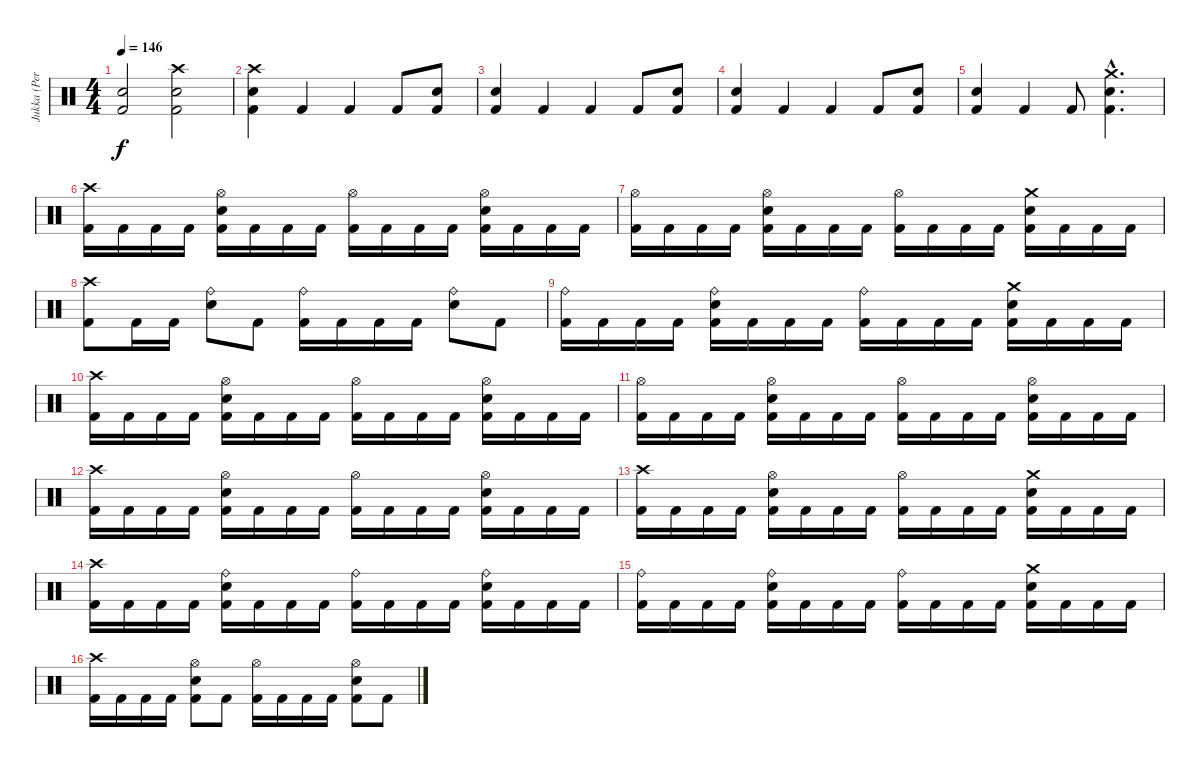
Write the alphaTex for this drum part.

\track ("Jukka (Percussion)" "Jukka (Per") {instrument percussion}
\staff {score}
\articulation defaults
\ts (4 4)
\tempo 146
\clef neutral
\ks c
("Snare (hit) 2" "Kick (hit) 2").2{dy f} ("Crash high (hit)" "Snare (hit) 2" "Kick (hit) 2").2 |
("Crash high (hit)" "Snare (hit) 2" "Kick (hit) 2").4 "Kick (hit) 2".4 "Kick (hit) 2".4 "Kick (hit) 2".8 ("Snare (hit) 2" "Kick (hit) 2").8 |
("Snare (hit) 2" "Kick (hit) 2").4 "Kick (hit) 2".4 "Kick (hit) 2".4 "Kick (hit) 2".8 ("Snare (hit) 2" "Kick (hit) 2").8 |
("Snare (hit) 2" "Kick (hit) 2").4 "Kick (hit) 2".4 "Kick (hit) 2".4 "Kick (hit) 2".8 ("Snare (hit) 2" "Kick (hit) 2").8 |
("Snare (hit) 2" "Kick (hit) 2").4 "Kick (hit) 2".4 "Kick (hit) 2".8 ("Crash medium (hit)"{hac} "Snare (hit) 2"{hac} "Kick (hit) 2"{hac}).4{d} |
("Crash high (hit)" "Kick (hit) 2").16 "Kick (hit) 2".16 "Kick (hit) 2".16 "Kick (hit) 2".16 ("Hi-Hat (open)" "Snare (hit) 2" "Kick (hit) 2").16 "Kick (hit) 2".16 "Kick (hit) 2".16 "Kick (hit) 2".16 ("Hi-Hat (open)" "Kick (hit) 2").16 "Kick (hit) 2".16 "Kick (hit) 2".16 "Kick (hit) 2".16 ("Hi-Hat (open)" "Snare (hit) 2" "Kick (hit) 2").16 "Kick (hit) 2".16 "Kick (hit) 2".16 "Kick (hit) 2".16 |
("Hi-Hat (open)" "Kick (hit) 2").16 "Kick (hit) 2".16 "Kick (hit) 2".16 "Kick (hit) 2".16 ("Hi-Hat (open)" "Snare (hit) 2" "Kick (hit) 2").16 "Kick (hit) 2".16 "Kick (hit) 2".16 "Kick (hit) 2".16 ("Hi-Hat (open)" "Kick (hit) 2").16 "Kick (hit) 2".16 "Kick (hit) 2".16 "Kick (hit) 2".16 ("Crash medium (hit)" "Snare (hit) 2" "Kick (hit) 2").16 "Kick (hit) 2".16 "Kick (hit) 2".16 "Kick (hit) 2".16 |
("Crash high (hit)" "Kick (hit) 2").8 "Kick (hit) 2".16 "Kick (hit) 2".16 ("Ride (bell)" "Snare (hit) 2").8 "Kick (hit) 2".8 ("Ride (bell)" "Kick (hit) 2").16 "Kick (hit) 2".16 "Kick (hit) 2".16 "Kick (hit) 2".16 ("Ride (bell)" "Snare (hit) 2").8 "Kick (hit) 2".8 |
("Ride (bell)" "Kick (hit) 2").16 "Kick (hit) 2".16 "Kick (hit) 2".16 "Kick (hit) 2".16 ("Ride (bell)" "Snare (hit) 2" "Kick (hit) 2").16 "Kick (hit) 2".16 "Kick (hit) 2".16 "Kick (hit) 2".16 ("Ride (bell)" "Kick (hit) 2").16 "Kick (hit) 2".16 "Kick (hit) 2".16 "Kick (hit) 2".16 ("Crash medium (hit)" "Snare (hit) 2" "Kick (hit) 2").16 "Kick (hit) 2".16 "Kick (hit) 2".16 "Kick (hit) 2".16 |
("Crash high (hit)" "Kick (hit) 2").16 "Kick (hit) 2".16 "Kick (hit) 2".16 "Kick (hit) 2".16 ("Hi-Hat (open)" "Snare (hit) 2" "Kick (hit) 2").16 "Kick (hit) 2".16 "Kick (hit) 2".16 "Kick (hit) 2".16 ("Hi-Hat (open)" "Kick (hit) 2").16 "Kick (hit) 2".16 "Kick (hit) 2".16 "Kick (hit) 2".16 ("Hi-Hat (open)" "Snare (hit) 2" "Kick (hit) 2").16 "Kick (hit) 2".16 "Kick (hit) 2".16 "Kick (hit) 2".16 |
("Hi-Hat (open)" "Kick (hit) 2").16 "Kick (hit) 2".16 "Kick (hit) 2".16 "Kick (hit) 2".16 ("Hi-Hat (open)" "Snare (hit) 2" "Kick (hit) 2").16 "Kick (hit) 2".16 "Kick (hit) 2".16 "Kick (hit) 2".16 ("Hi-Hat (open)" "Kick (hit) 2").16 "Kick (hit) 2".16 "Kick (hit) 2".16 "Kick (hit) 2".16 ("Hi-Hat (open)" "Snare (hit) 2" "Kick (hit) 2").16 "Kick (hit) 2".16 "Kick (hit) 2".16 "Kick (hit) 2".16 |
("Crash high (hit)" "Kick (hit) 2").16 "Kick (hit) 2".16 "Kick (hit) 2".16 "Kick (hit) 2".16 ("Hi-Hat (open)" "Snare (hit) 2" "Kick (hit) 2").16 "Kick (hit) 2".16 "Kick (hit) 2".16 "Kick (hit) 2".16 ("Hi-Hat (open)" "Kick (hit) 2").16 "Kick (hit) 2".16 "Kick (hit) 2".16 "Kick (hit) 2".16 ("Hi-Hat (open)" "Snare (hit) 2" "Kick (hit) 2").16 "Kick (hit) 2".16 "Kick (hit) 2".16 "Kick (hit) 2".16 |
("Crash high (hit)" "Kick (hit) 2").16 "Kick (hit) 2".16 "Kick (hit) 2".16 "Kick (hit) 2".16 ("Hi-Hat (open)" "Snare (hit) 2" "Kick (hit) 2").16 "Kick (hit) 2".16 "Kick (hit) 2".16 "Kick (hit) 2".16 ("Hi-Hat (open)" "Kick (hit) 2").16 "Kick (hit) 2".16 "Kick (hit) 2".16 "Kick (hit) 2".16 ("Crash medium (hit)" "Snare (hit) 2" "Kick (hit) 2").16 "Kick (hit) 2".16 "Kick (hit) 2".16 "Kick (hit) 2".16 |
("Crash high (hit)" "Kick (hit) 2").16 "Kick (hit) 2".16 "Kick (hit) 2".16 "Kick (hit) 2".16 ("Ride (bell)" "Snare (hit) 2" "Kick (hit) 2").16 "Kick (hit) 2".16 "Kick (hit) 2".16 "Kick (hit) 2".16 ("Ride (bell)" "Kick (hit) 2").16 "Kick (hit) 2".16 "Kick (hit) 2".16 "Kick (hit) 2".16 ("Ride (bell)" "Snare (hit) 2" "Kick (hit) 2").16 "Kick (hit) 2".16 "Kick (hit) 2".16 "Kick (hit) 2".16 |
("Ride (bell)" "Kick (hit) 2").16 "Kick (hit) 2".16 "Kick (hit) 2".16 "Kick (hit) 2".16 ("Ride (bell)" "Snare (hit) 2" "Kick (hit) 2").16 "Kick (hit) 2".16 "Kick (hit) 2".16 "Kick (hit) 2".16 ("Ride (bell)" "Kick (hit) 2").16 "Kick (hit) 2".16 "Kick (hit) 2".16 "Kick (hit) 2".16 ("Crash medium (hit)" "Snare (hit) 2" "Kick (hit) 2").16 "Kick (hit) 2".16 "Kick (hit) 2".16 "Kick (hit) 2".16 |
("Crash high (hit)" "Kick (hit) 2").16 "Kick (hit) 2".16 "Kick (hit) 2".16 "Kick (hit) 2".16 ("Hi-Hat (open)" "Snare (hit) 2" "Kick (hit) 2").8 "Kick (hit) 2".8 ("Hi-Hat (open)" "Kick (hit) 2").16 "Kick (hit) 2".16 "Kick (hit) 2".16 "Kick (hit) 2".16 ("Hi-Hat (open)" "Snare (hit) 2" "Kick (hit) 2").8 "Kick (hit) 2".8
